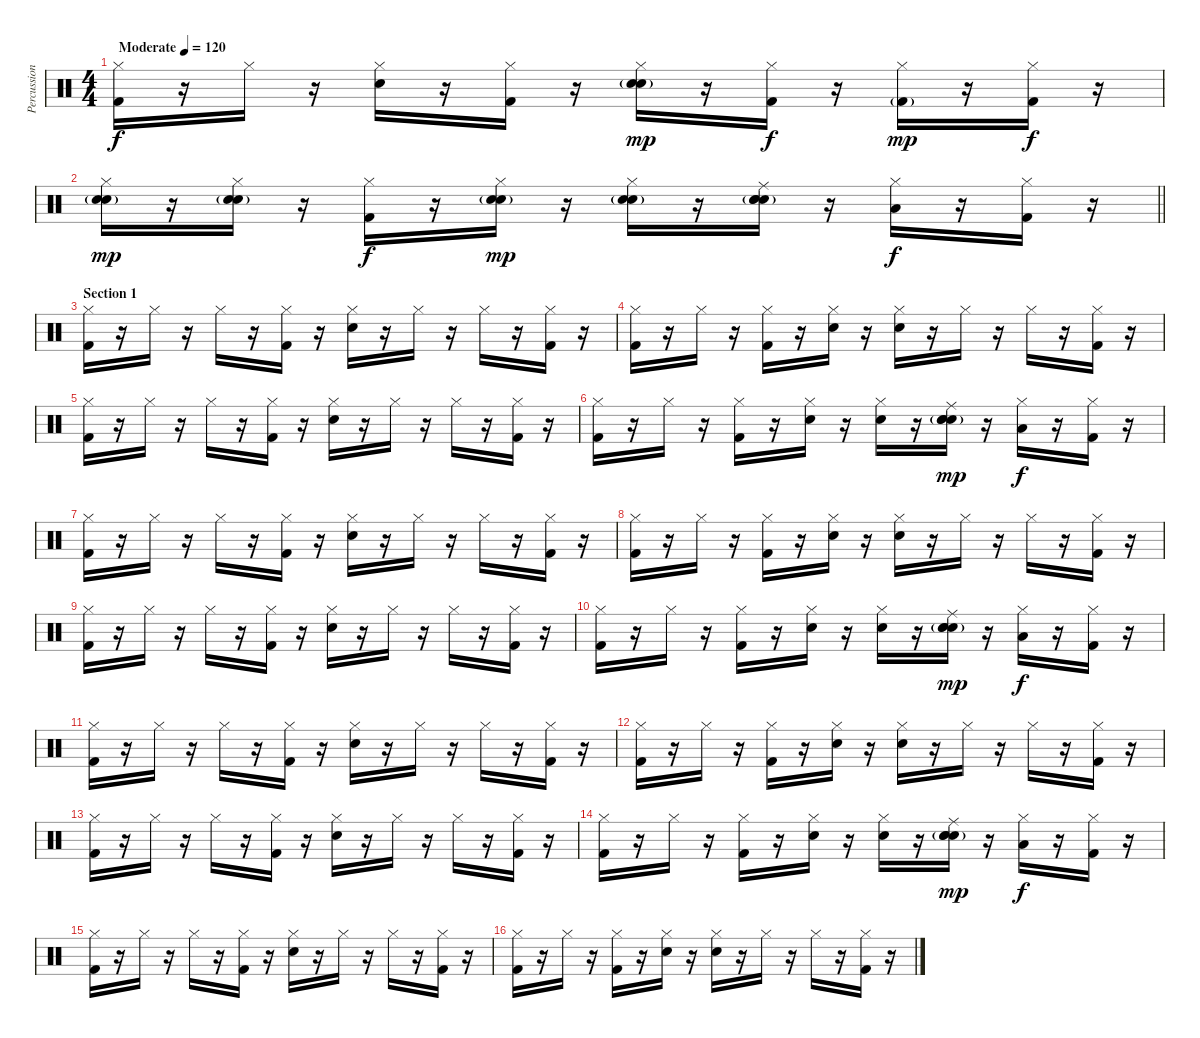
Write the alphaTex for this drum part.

\track ("Percussion" "Percussion") {instrument percussion}
\staff {score}
\articulation defaults
\ts (4 4)
\tempo (120 "Moderate")
\clef neutral
\ks c
("Hi-Hat (closed)" "Kick (hit) 2").16{dy f} r.16 "Hi-Hat (closed)".16 r.16 ("Hi-Hat (closed)" "Snare (hit)").16 r.16 ("Hi-Hat (closed)" "Kick (hit) 2").16 r.16 ("Hi-Hat (closed)" "Electric Snare (hit)"{g} "Snare (hit) 2").16{dy mp} r.16 ("Hi-Hat (closed)" "Kick (hit) 2").16{dy f} r.16 ("Hi-Hat (closed)" "Kick (hit) 2"{g}).16{dy mp} r.16 ("Hi-Hat (closed)" "Kick (hit) 2").16{dy f} r.16 |
\barLineRight lightlight
("Hi-Hat (closed)" "Electric Snare (hit)"{g} "Snare (hit) 2").16{dy mp} r.16 ("Hi-Hat (closed)" "Electric Snare (hit)"{g} "Snare (hit) 2").16 r.16 ("Hi-Hat (closed)" "Kick (hit) 2").16{dy f} r.16 ("Hi-Hat (closed)" "Electric Snare (hit)"{g} "Snare (hit) 2").16{dy mp} r.16 ("Hi-Hat (closed)" "Electric Snare (hit)"{g} "Snare (hit) 2").16 r.16 ("Ride (middle)" "Snare (hit)"{g} "Electric Snare (hit)"{g} "Snare (hit) 2"{g}).16 r.16 ("Hi-Hat (closed)" "Low Floor Tom (hit)").16{dy f} r.16 ("Hi-Hat (closed)" "Kick (hit) 2").16 r.16 |
\section ("" "Section 1")
("Hi-Hat (closed)" "Kick (hit) 2").16 r.16 "Hi-Hat (closed)".16 r.16 "Hi-Hat (closed)".16 r.16 ("Hi-Hat (closed)" "Kick (hit) 2").16 r.16 ("Hi-Hat (closed)" "Snare (hit) 2").16 r.16 "Hi-Hat (closed)".16 r.16 "Hi-Hat (closed)".16 r.16 ("Hi-Hat (closed)" "Kick (hit) 2").16 r.16 |
("Hi-Hat (closed)" "Kick (hit) 2").16 r.16 "Hi-Hat (closed)".16 r.16 ("Hi-Hat (closed)" "Kick (hit) 2").16 r.16 ("Hi-Hat (closed)" "Snare (hit)").16 r.16 ("Hi-Hat (closed)" "Snare (hit) 2").16 r.16 "Hi-Hat (closed)".16 r.16 "Hi-Hat (closed)".16 r.16 ("Hi-Hat (closed)" "Kick (hit) 2").16 r.16 |
("Hi-Hat (closed)" "Kick (hit) 2").16 r.16 "Hi-Hat (closed)".16 r.16 "Hi-Hat (closed)".16 r.16 ("Hi-Hat (closed)" "Kick (hit) 2").16 r.16 ("Hi-Hat (closed)" "Snare (hit) 2").16 r.16 "Hi-Hat (closed)".16 r.16 "Hi-Hat (closed)".16 r.16 ("Hi-Hat (closed)" "Kick (hit) 2").16 r.16 |
("Hi-Hat (closed)" "Kick (hit) 2").16 r.16 "Hi-Hat (closed)".16 r.16 ("Hi-Hat (closed)" "Kick (hit) 2").16 r.16 ("Hi-Hat (closed)" "Snare (hit)").16 r.16 ("Hi-Hat (closed)" "Snare (hit) 2").16 r.16 ("Ride (middle)" "Snare (hit)"{g} "Electric Snare (hit)"{g} "Snare (hit) 2"{g}).16{dy mp} r.16 ("Hi-Hat (closed)" "Low Floor Tom (hit)").16{dy f} r.16 ("Hi-Hat (closed)" "Kick (hit) 2").16 r.16 |
("Hi-Hat (closed)" "Kick (hit) 2").16 r.16 "Hi-Hat (closed)".16 r.16 "Hi-Hat (closed)".16 r.16 ("Hi-Hat (closed)" "Kick (hit) 2").16 r.16 ("Hi-Hat (closed)" "Snare (hit) 2").16 r.16 "Hi-Hat (closed)".16 r.16 "Hi-Hat (closed)".16 r.16 ("Hi-Hat (closed)" "Kick (hit) 2").16 r.16 |
("Hi-Hat (closed)" "Kick (hit) 2").16 r.16 "Hi-Hat (closed)".16 r.16 ("Hi-Hat (closed)" "Kick (hit) 2").16 r.16 ("Hi-Hat (closed)" "Snare (hit)").16 r.16 ("Hi-Hat (closed)" "Snare (hit) 2").16 r.16 "Hi-Hat (closed)".16 r.16 "Hi-Hat (closed)".16 r.16 ("Hi-Hat (closed)" "Kick (hit) 2").16 r.16 |
("Hi-Hat (closed)" "Kick (hit) 2").16 r.16 "Hi-Hat (closed)".16 r.16 "Hi-Hat (closed)".16 r.16 ("Hi-Hat (closed)" "Kick (hit) 2").16 r.16 ("Hi-Hat (closed)" "Snare (hit) 2").16 r.16 "Hi-Hat (closed)".16 r.16 "Hi-Hat (closed)".16 r.16 ("Hi-Hat (closed)" "Kick (hit) 2").16 r.16 |
("Hi-Hat (closed)" "Kick (hit) 2").16 r.16 "Hi-Hat (closed)".16 r.16 ("Hi-Hat (closed)" "Kick (hit) 2").16 r.16 ("Hi-Hat (closed)" "Snare (hit)").16 r.16 ("Hi-Hat (closed)" "Snare (hit) 2").16 r.16 ("Ride (middle)" "Snare (hit)"{g} "Electric Snare (hit)"{g} "Snare (hit) 2"{g}).16{dy mp} r.16 ("Hi-Hat (closed)" "Low Floor Tom (hit)").16{dy f} r.16 ("Hi-Hat (closed)" "Kick (hit) 2").16 r.16 |
("Hi-Hat (closed)" "Kick (hit) 2").16 r.16 "Hi-Hat (closed)".16 r.16 "Hi-Hat (closed)".16 r.16 ("Hi-Hat (closed)" "Kick (hit) 2").16 r.16 ("Hi-Hat (closed)" "Snare (hit) 2").16 r.16 "Hi-Hat (closed)".16 r.16 "Hi-Hat (closed)".16 r.16 ("Hi-Hat (closed)" "Kick (hit) 2").16 r.16 |
("Hi-Hat (closed)" "Kick (hit) 2").16 r.16 "Hi-Hat (closed)".16 r.16 ("Hi-Hat (closed)" "Kick (hit) 2").16 r.16 ("Hi-Hat (closed)" "Snare (hit)").16 r.16 ("Hi-Hat (closed)" "Snare (hit) 2").16 r.16 "Hi-Hat (closed)".16 r.16 "Hi-Hat (closed)".16 r.16 ("Hi-Hat (closed)" "Kick (hit) 2").16 r.16 |
("Hi-Hat (closed)" "Kick (hit) 2").16 r.16 "Hi-Hat (closed)".16 r.16 "Hi-Hat (closed)".16 r.16 ("Hi-Hat (closed)" "Kick (hit) 2").16 r.16 ("Hi-Hat (closed)" "Snare (hit) 2").16 r.16 "Hi-Hat (closed)".16 r.16 "Hi-Hat (closed)".16 r.16 ("Hi-Hat (closed)" "Kick (hit) 2").16 r.16 |
("Hi-Hat (closed)" "Kick (hit) 2").16 r.16 "Hi-Hat (closed)".16 r.16 ("Hi-Hat (closed)" "Kick (hit) 2").16 r.16 ("Hi-Hat (closed)" "Snare (hit)").16 r.16 ("Hi-Hat (closed)" "Snare (hit) 2").16 r.16 ("Ride (middle)" "Snare (hit)"{g} "Electric Snare (hit)"{g} "Snare (hit) 2"{g}).16{dy mp} r.16 ("Hi-Hat (closed)" "Low Floor Tom (hit)").16{dy f} r.16 ("Hi-Hat (closed)" "Kick (hit) 2").16 r.16 |
("Hi-Hat (closed)" "Kick (hit) 2").16 r.16 "Hi-Hat (closed)".16 r.16 "Hi-Hat (closed)".16 r.16 ("Hi-Hat (closed)" "Kick (hit) 2").16 r.16 ("Hi-Hat (closed)" "Snare (hit) 2").16 r.16 "Hi-Hat (closed)".16 r.16 "Hi-Hat (closed)".16 r.16 ("Hi-Hat (closed)" "Kick (hit) 2").16 r.16 |
("Hi-Hat (closed)" "Kick (hit) 2").16 r.16 "Hi-Hat (closed)".16 r.16 ("Hi-Hat (closed)" "Kick (hit) 2").16 r.16 ("Hi-Hat (closed)" "Snare (hit)").16 r.16 ("Hi-Hat (closed)" "Snare (hit) 2").16 r.16 "Hi-Hat (closed)".16 r.16 "Hi-Hat (closed)".16 r.16 ("Hi-Hat (closed)" "Kick (hit) 2").16 r.16
